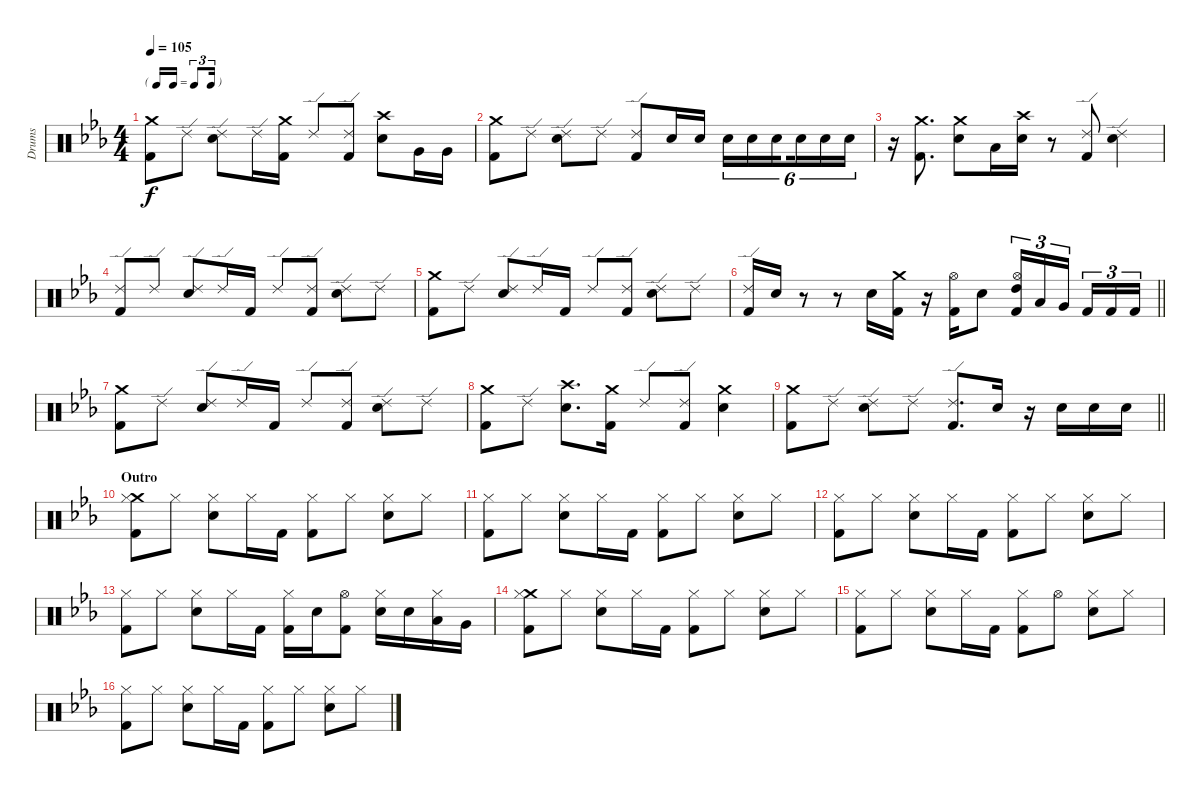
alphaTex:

\track ("Drums" "Drums") {instrument percussion}
\staff {score}
\articulation defaults
\ts (4 4)
\tf triplet16th
\tempo 105
\clef neutral
\ks eb
("Crash medium (hit)" "Kick (hit) 2").8{dy f} "Ride (edge) 2".8 ("Ride (edge) 2" "Snare (hit) 2").8 "Ride (edge) 2".16 ("Crash medium (hit)" "Kick (hit) 2").16 "Ride (edge) 2".8 ("Ride (edge) 2" "Kick (hit) 2").8 ("Crash high (hit)" "Snare (hit) 2").8 "Very Low Tom (hit)".16 "Very Low Tom (hit)".16 |
("Crash medium (hit)" "Kick (hit) 2").8 "Ride (edge) 2".8 ("Ride (edge) 2" "Snare (hit) 2").8 "Ride (edge) 2".8 ("Ride (edge) 2" "Kick (hit) 2").8 "Snare (hit) 2".16 "Snare (hit) 2".16 "Snare (hit) 2".16{tu (6 4)} "Snare (hit) 2".16{tu (6 4)} "Snare (hit) 2".16{tu (6 4) beam splitsecondary} "Snare (hit) 2".16{tu (6 4)} "Snare (hit) 2".16{tu (6 4)} "Snare (hit) 2".16{tu (6 4)} |
r.16 ("Crash medium (hit)" "Kick (hit) 2").8{d} ("Crash medium (hit)" "Snare (hit) 2").8 "Low Floor Tom (hit)".16 ("Crash high (hit)" "Snare (hit) 2").16 r.8 ("Ride (edge) 2" "Kick (hit) 2").8 ("Ride (edge) 2" "Snare (hit) 2").4 |
("Ride (edge) 2" "Kick (hit) 2").8 "Ride (edge) 2".8 ("Ride (edge) 2" "Snare (hit) 2").8 "Ride (edge) 2".16 "Kick (hit) 2".16 "Ride (edge) 2".8 ("Ride (edge) 2" "Kick (hit) 2").8 ("Ride (edge) 2" "Snare (hit) 2").8 "Ride (edge) 2".8 |
("Crash medium (hit)" "Kick (hit) 2").8 "Ride (edge) 2".8 ("Ride (edge) 2" "Snare (hit) 2").8 "Ride (edge) 2".16 "Kick (hit) 2".16 "Ride (edge) 2".8 ("Ride (edge) 2" "Kick (hit) 2").8 ("Ride (edge) 2" "Snare (hit) 2").8 "Ride (edge) 2".8 |
\barLineRight lightlight
("Ride (edge) 2" "Kick (hit) 2").16 "Snare (hit) 2".16 r.8 r.8 "Snare (hit) 2".16 ("Crash medium (hit)" "Kick (hit) 2").16 r.16 ("Hi-Hat (open)" "Kick (hit) 2").16 "Snare (hit) 2".8 ("Hi-Hat (open)" "High Tom (hit)" "Kick (hit) 2").16{tu (3 2)} "Low Tom (hit)".16{tu (3 2)} "Very Low Tom (hit)".16{tu (3 2) beam splitsecondary} "Kick (hit) 2".16{tu (3 2)} "Kick (hit) 2".16{tu (3 2)} "Kick (hit) 2".16{tu (3 2)} |
("Crash medium (hit)" "Kick (hit) 2").8 "Ride (edge) 2".8 ("Ride (edge) 2" "Snare (hit) 2").8 "Ride (edge) 2".16 "Kick (hit) 2".16 "Ride (edge) 2".8 ("Ride (edge) 2" "Kick (hit) 2").8 ("Ride (edge) 2" "Snare (hit) 2").8 "Ride (edge) 2".8 |
("Crash medium (hit)" "Kick (hit) 2").8 "Ride (edge) 2".8 ("Crash high (hit)" "Snare (hit) 2").8{d} ("Crash medium (hit)" "Kick (hit) 2").16 "Ride (edge) 2".8 ("Ride (edge) 2" "Kick (hit) 2").8 ("Crash medium (hit)" "Snare (hit) 2").4 |
\barLineRight lightlight
("Crash medium (hit)" "Kick (hit) 2").8 "Ride (edge) 2".8 ("Ride (edge) 2" "Snare (hit) 2").8 "Ride (edge) 2".8 ("Ride (edge) 2" "Kick (hit) 2").8{d} "Snare (hit) 2".16 r.16 "Snare (hit) 2".16 "Snare (hit) 2".16 "Snare (hit) 2".16 |
\section ("" "Outro")
("Crash medium (hit)" "Hi-Hat (closed)" "Kick (hit) 2").8 "Hi-Hat (closed)".8 ("Hi-Hat (closed)" "Snare (hit) 2").8 "Hi-Hat (closed)".16 "Kick (hit) 2".16 ("Hi-Hat (closed)" "Kick (hit) 2").8 "Hi-Hat (closed)".8 ("Hi-Hat (closed)" "Snare (hit) 2").8 "Hi-Hat (closed)".8 |
("Hi-Hat (closed)" "Kick (hit) 2").8 "Hi-Hat (closed)".8 ("Hi-Hat (closed)" "Snare (hit) 2").8 "Hi-Hat (closed)".16 "Kick (hit) 2".16 ("Hi-Hat (closed)" "Kick (hit) 2").8 "Hi-Hat (closed)".8 ("Hi-Hat (closed)" "Snare (hit) 2").8 "Hi-Hat (closed)".8 |
("Hi-Hat (closed)" "Kick (hit) 2").8 "Hi-Hat (closed)".8 ("Hi-Hat (closed)" "Snare (hit) 2").8 "Hi-Hat (closed)".16 "Kick (hit) 2".16 ("Hi-Hat (closed)" "Kick (hit) 2").8 "Hi-Hat (closed)".8 ("Hi-Hat (closed)" "Snare (hit) 2").8 "Hi-Hat (closed)".8 |
("Hi-Hat (closed)" "Kick (hit) 2").8 "Hi-Hat (closed)".8 ("Hi-Hat (closed)" "Snare (hit) 2").8 "Hi-Hat (closed)".16 "Kick (hit) 2".16 ("Hi-Hat (closed)" "Kick (hit) 2").16 "Snare (hit) 2".16 ("Hi-Hat (open)" "Kick (hit) 2").8 ("Hi-Hat (closed)" "Snare (hit) 2").16 "Snare (hit) 2".16 ("Hi-Hat (closed)" "Low Tom (hit)").16 "Very Low Tom (hit)".16 |
("Crash medium (hit)" "Hi-Hat (closed)" "Kick (hit) 2").8 "Hi-Hat (closed)".8 ("Hi-Hat (closed)" "Snare (hit) 2").8 "Hi-Hat (closed)".16 "Kick (hit) 2".16 ("Hi-Hat (closed)" "Kick (hit) 2").8 "Hi-Hat (closed)".8 ("Hi-Hat (closed)" "Snare (hit) 2").8 "Hi-Hat (closed)".8 |
("Hi-Hat (closed)" "Kick (hit) 2").8 "Hi-Hat (closed)".8 ("Hi-Hat (closed)" "Snare (hit) 2").8 "Hi-Hat (closed)".16 "Kick (hit) 2".16 ("Hi-Hat (closed)" "Kick (hit) 2").8 "Hi-Hat (open)".8 ("Hi-Hat (closed)" "Snare (hit) 2").8 "Hi-Hat (closed)".8 |
("Hi-Hat (closed)" "Kick (hit) 2").8 "Hi-Hat (closed)".8 ("Hi-Hat (closed)" "Snare (hit) 2").8 "Hi-Hat (closed)".16 "Kick (hit) 2".16 ("Hi-Hat (closed)" "Kick (hit) 2").8 "Hi-Hat (closed)".8 ("Hi-Hat (closed)" "Snare (hit) 2").8 "Hi-Hat (closed)".8
